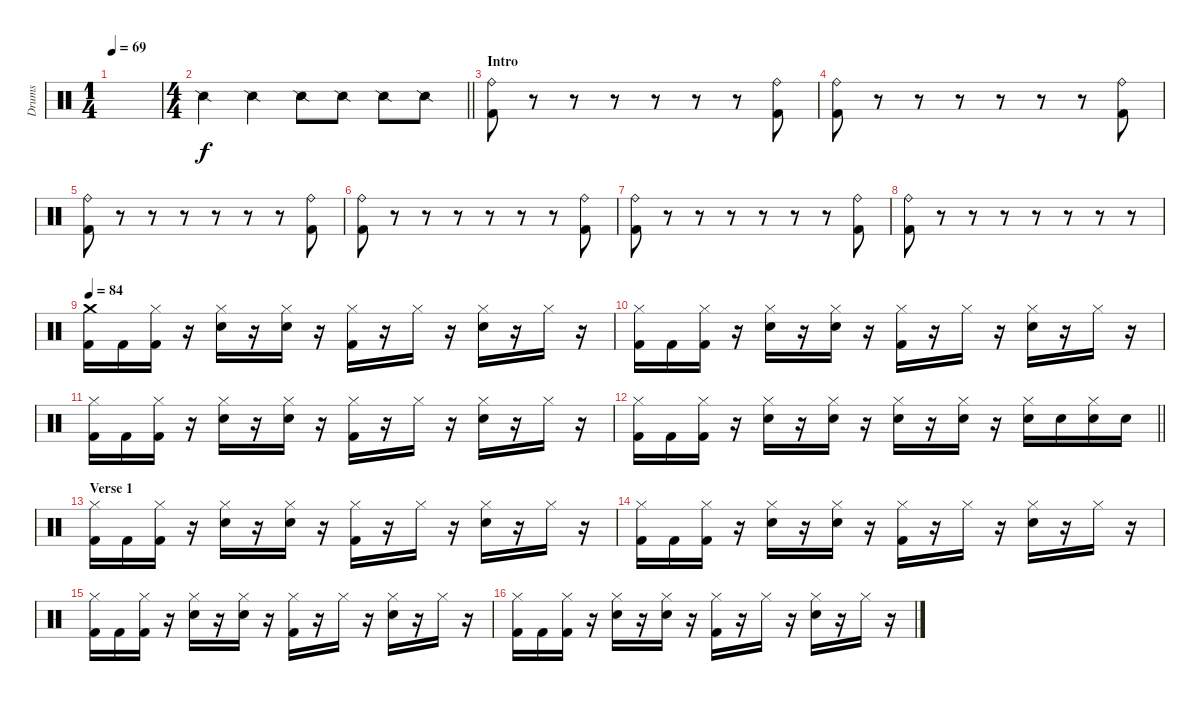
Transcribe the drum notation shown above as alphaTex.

\track ("Drums" "Drums") {instrument percussion}
\staff {score}
\articulation defaults
\ts (1 4)
\tempo 69
\clef neutral
\ks c
|
\ts (4 4)
\barLineRight lightlight "Snare (side stick) 2".4 "Snare (side stick) 2".4 "Snare (side stick) 2".8 "Snare (side stick) 2".8 "Snare (side stick) 2".8 "Snare (side stick) 2".8
|
\section ("" "Intro")
("Ride (bell)" "Kick (hit) 2").8 r.8 r.8 r.8 r.8 r.8 r.8 ("Ride (bell)" "Kick (hit) 2").8 |
("Ride (bell)" "Kick (hit) 2").8 r.8 r.8 r.8 r.8 r.8 r.8 ("Ride (bell)" "Kick (hit) 2").8 |
("Ride (bell)" "Kick (hit) 2").8 r.8 r.8 r.8 r.8 r.8 r.8 ("Ride (bell)" "Kick (hit) 2").8 |
("Ride (bell)" "Kick (hit) 2").8 r.8 r.8 r.8 r.8 r.8 r.8 ("Ride (bell)" "Kick (hit) 2").8 |
("Ride (bell)" "Kick (hit) 2").8 r.8 r.8 r.8 r.8 r.8 r.8 ("Ride (bell)" "Kick (hit) 2").8 |
("Ride (bell)" "Kick (hit) 2").8 r.8 r.8 r.8 r.8 r.8 r.8 r.8 |
\tempo 84
("Crash medium (hit)" "Kick (hit) 2").16 "Kick (hit) 2".16 ("Hi-Hat (closed)" "Kick (hit) 2").16 r.16 ("Hi-Hat (closed)" "Snare (hit) 2").16 r.16 ("Hi-Hat (closed)" "Snare (hit) 2").16 r.16 ("Hi-Hat (closed)" "Kick (hit) 2").16 r.16 "Hi-Hat (closed)".16 r.16 ("Hi-Hat (closed)" "Snare (hit) 2").16 r.16 "Hi-Hat (closed)".16 r.16 |
("Hi-Hat (closed)" "Kick (hit) 2").16 "Kick (hit) 2".16 ("Hi-Hat (closed)" "Kick (hit) 2").16 r.16 ("Hi-Hat (closed)" "Snare (hit) 2").16 r.16 ("Hi-Hat (closed)" "Snare (hit) 2").16 r.16 ("Hi-Hat (closed)" "Kick (hit) 2").16 r.16 "Hi-Hat (closed)".16 r.16 ("Hi-Hat (closed)" "Snare (hit) 2").16 r.16 "Hi-Hat (closed)".16 r.16 |
("Hi-Hat (closed)" "Kick (hit) 2").16 "Kick (hit) 2".16 ("Hi-Hat (closed)" "Kick (hit) 2").16 r.16 ("Hi-Hat (closed)" "Snare (hit) 2").16 r.16 ("Hi-Hat (closed)" "Snare (hit) 2").16 r.16 ("Hi-Hat (closed)" "Kick (hit) 2").16 r.16 "Hi-Hat (closed)".16 r.16 ("Hi-Hat (closed)" "Snare (hit) 2").16 r.16 "Hi-Hat (closed)".16 r.16 |
\barLineRight lightlight
("Hi-Hat (closed)" "Kick (hit) 2").16 "Kick (hit) 2".16 ("Hi-Hat (closed)" "Kick (hit) 2").16 r.16 ("Hi-Hat (closed)" "Snare (hit) 2").16 r.16 ("Hi-Hat (closed)" "Snare (hit) 2").16 r.16 ("Hi-Hat (closed)" "Snare (hit) 2").16 r.16 ("Hi-Hat (closed)" "Snare (hit) 2").16 r.16 ("Hi-Hat (closed)" "Snare (hit) 2").16 "Snare (hit) 2".16 ("Hi-Hat (closed)" "Snare (hit) 2").16 "Snare (hit) 2".16 |
\section ("" "Verse 1")
("Hi-Hat (closed)" "Kick (hit) 2").16 "Kick (hit) 2".16 ("Hi-Hat (closed)" "Kick (hit) 2").16 r.16 ("Hi-Hat (closed)" "Snare (hit) 2").16 r.16 ("Hi-Hat (closed)" "Snare (hit) 2").16 r.16 ("Hi-Hat (closed)" "Kick (hit) 2").16 r.16 "Hi-Hat (closed)".16 r.16 ("Hi-Hat (closed)" "Snare (hit) 2").16 r.16 "Hi-Hat (closed)".16 r.16 |
("Hi-Hat (closed)" "Kick (hit) 2").16 "Kick (hit) 2".16 ("Hi-Hat (closed)" "Kick (hit) 2").16 r.16 ("Hi-Hat (closed)" "Snare (hit) 2").16 r.16 ("Hi-Hat (closed)" "Snare (hit) 2").16 r.16 ("Hi-Hat (closed)" "Kick (hit) 2").16 r.16 "Hi-Hat (closed)".16 r.16 ("Hi-Hat (closed)" "Snare (hit) 2").16 r.16 "Hi-Hat (closed)".16 r.16 |
("Hi-Hat (closed)" "Kick (hit) 2").16 "Kick (hit) 2".16 ("Hi-Hat (closed)" "Kick (hit) 2").16 r.16 ("Hi-Hat (closed)" "Snare (hit) 2").16 r.16 ("Hi-Hat (closed)" "Snare (hit) 2").16 r.16 ("Hi-Hat (closed)" "Kick (hit) 2").16 r.16 "Hi-Hat (closed)".16 r.16 ("Hi-Hat (closed)" "Snare (hit) 2").16 r.16 "Hi-Hat (closed)".16 r.16 |
("Hi-Hat (closed)" "Kick (hit) 2").16 "Kick (hit) 2".16 ("Hi-Hat (closed)" "Kick (hit) 2").16 r.16 ("Hi-Hat (closed)" "Snare (hit) 2").16 r.16 ("Hi-Hat (closed)" "Snare (hit) 2").16 r.16 ("Hi-Hat (closed)" "Kick (hit) 2").16 r.16 "Hi-Hat (closed)".16 r.16 ("Hi-Hat (closed)" "Snare (hit) 2").16 r.16 "Hi-Hat (closed)".16 r.16
